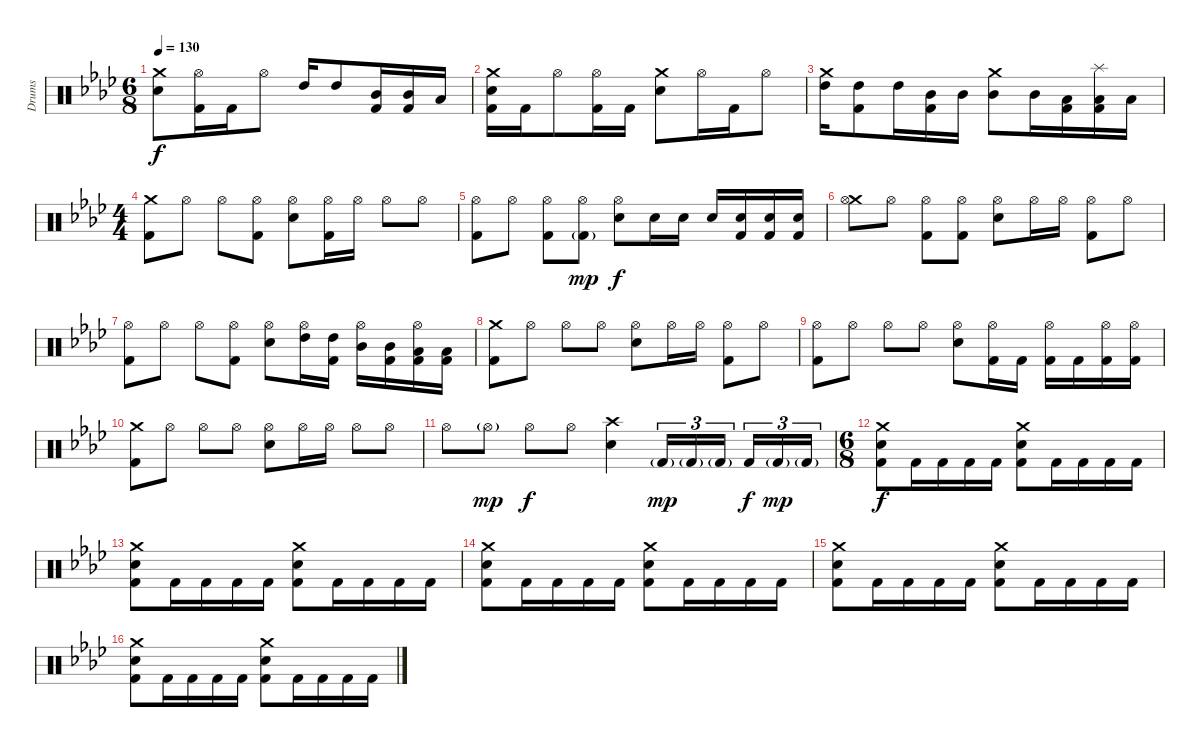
\track ("Drums" "Drums") {instrument percussion}
\staff {score}
\articulation defaults
\ts (6 8)
\tempo 130
\clef neutral
\ks ab
("Crash medium (hit)" "Electric Snare (hit)").8{dy f} ("Hi-Hat (open)" "Kick (hit) 2").16 "Kick (hit) 2".16 "Hi-Hat (open)".8 "High Tom (hit)".16 "High Tom (hit)".8 ("Mid Tom (hit)" "Kick (hit) 2").16 ("Mid Tom (hit)" "Kick (hit) 2").16 "Low Tom (hit)".16 |
("Crash medium (hit)" "Electric Snare (hit)" "Kick (hit) 2").16 "Kick (hit) 2".16 "Hi-Hat (open)".8 ("Hi-Hat (open)" "Kick (hit) 2").16 "Kick (hit) 2".16 ("Crash medium (hit)" "Electric Snare (hit)").8 "Hi-Hat (open)".16 "Kick (hit) 2".16 "Hi-Hat (open)".8 |
("High Tom (hit)" "Crash medium (hit)").16 ("High Tom (hit)" "Kick (hit) 2").8 "High Tom (hit)".16 ("Mid Tom (hit)" "Kick (hit) 2").16 "Mid Tom (hit)".16 ("Mid Tom (hit)" "Crash medium (hit)").8 "Mid Tom (hit)".16 ("Low Tom (hit)" "Kick (hit) 2").16 ("Low Tom (hit)" "Splash (hit)" "Kick (hit) 2").16 "Low Tom (hit)".16 |
\ts (4 4)
("Crash medium (hit)" "Kick (hit) 2").8{volume 16} "Hi-Hat (open)".8 "Hi-Hat (open)".8 ("Kick (hit) 2" "Hi-Hat (open)").8 ("Electric Snare (hit)" "Hi-Hat (open)").8 ("Kick (hit) 2" "Hi-Hat (open)").16 "Hi-Hat (open)".16 "Hi-Hat (open)".8 "Hi-Hat (open)".8 |
("Kick (hit) 2" "Hi-Hat (open)").8 "Hi-Hat (open)".8 ("Kick (hit) 2" "Hi-Hat (open)").8 ("Kick (hit) 2"{g} "Hi-Hat (open)").8{dy mp} ("Electric Snare (hit)" "Hi-Hat (open)").8{dy f} "Electric Snare (hit)".16 "Electric Snare (hit)".16 "Electric Snare (hit)".16 ("Kick (hit) 2" "Electric Snare (hit)").16 ("Kick (hit) 2" "Electric Snare (hit)").16 ("Kick (hit) 2" "Electric Snare (hit)").16 |
("Crash medium (hit)" "Hi-Hat (open)").8 "Hi-Hat (open)".8 ("Kick (hit) 2" "Hi-Hat (open)").8 ("Kick (hit) 2" "Hi-Hat (open)").8 ("Electric Snare (hit)" "Hi-Hat (open)").8 "Hi-Hat (open)".16 "Hi-Hat (open)".16 ("Kick (hit) 2" "Hi-Hat (open)").8 "Hi-Hat (open)".8 |
("Kick (hit) 2" "Hi-Hat (open)").8 "Hi-Hat (open)".8 "Hi-Hat (open)".8 ("Kick (hit) 2" "Hi-Hat (open)").8 ("Electric Snare (hit)" "Hi-Hat (open)").8 ("High Tom (hit)" "Hi-Hat (open)").16 ("Kick (hit) 2" "High Tom (hit)").16 ("Mid Tom (hit)" "Hi-Hat (open)").16 ("Kick (hit) 2" "Mid Tom (hit)").16 ("Kick (hit) 2" "Low Tom (hit)" "Hi-Hat (open)").16 ("Kick (hit) 2" "Low Tom (hit)").16 |
("Crash medium (hit)" "Kick (hit) 2").8 "Hi-Hat (open)".8 "Hi-Hat (open)".8 "Hi-Hat (open)".8 ("Electric Snare (hit)" "Hi-Hat (open)").8 "Hi-Hat (open)".16 "Hi-Hat (open)".16 ("Kick (hit) 2" "Hi-Hat (open)").8 "Hi-Hat (open)".8 |
("Kick (hit) 2" "Hi-Hat (open)").8 "Hi-Hat (open)".8 "Hi-Hat (open)".8 "Hi-Hat (open)".8 ("Electric Snare (hit)" "Hi-Hat (open)").8 ("Kick (hit) 2" "Hi-Hat (open)").16 "Kick (hit) 2".16 ("Kick (hit) 2" "Hi-Hat (open)").16 "Kick (hit) 2".16 ("Kick (hit) 2" "Hi-Hat (open)").16 ("Kick (hit) 2" "Hi-Hat (open)").16 |
("Crash medium (hit)" "Kick (hit) 2").8 "Hi-Hat (open)".8 "Hi-Hat (open)".8 "Hi-Hat (open)".8 ("Electric Snare (hit)" "Hi-Hat (open)").8 "Hi-Hat (open)".16 "Hi-Hat (open)".16 "Hi-Hat (open)".8 "Hi-Hat (open)".8 |
"Hi-Hat (open)".8 "Hi-Hat (open)"{g}.8{dy mp} "Hi-Hat (open)".8{dy f} "Hi-Hat (open)".8 ("Crash high (hit)" "Electric Snare (hit)").4 "Kick (hit) 2"{g}.16{tu (3 2) dy mp} "Kick (hit) 2"{g}.16{tu (3 2)} "Kick (hit) 2"{g}.16{tu (3 2)} "Kick (hit) 2".16{tu (3 2) dy f} "Kick (hit) 2"{g}.16{tu (3 2) dy mp} "Kick (hit) 2"{g}.16{tu (3 2)} |
\ts (6 8)
("Kick (hit) 2" "Electric Snare (hit)" "Crash medium (hit)").8{dy f} "Kick (hit) 2".16 "Kick (hit) 2".16 "Kick (hit) 2".16 "Kick (hit) 2".16 ("Kick (hit) 2" "Electric Snare (hit)" "Crash medium (hit)").8 "Kick (hit) 2".16 "Kick (hit) 2".16 "Kick (hit) 2".16 "Kick (hit) 2".16 |
("Kick (hit) 2" "Electric Snare (hit)" "Crash medium (hit)").8 "Kick (hit) 2".16 "Kick (hit) 2".16 "Kick (hit) 2".16 "Kick (hit) 2".16 ("Kick (hit) 2" "Electric Snare (hit)" "Crash medium (hit)").8 "Kick (hit) 2".16 "Kick (hit) 2".16 "Kick (hit) 2".16 "Kick (hit) 2".16 |
("Kick (hit) 2" "Electric Snare (hit)" "Crash medium (hit)").8 "Kick (hit) 2".16 "Kick (hit) 2".16 "Kick (hit) 2".16 "Kick (hit) 2".16 ("Kick (hit) 2" "Electric Snare (hit)" "Crash medium (hit)").8 "Kick (hit) 2".16 "Kick (hit) 2".16 "Kick (hit) 2".16 "Kick (hit) 2".16 |
("Kick (hit) 2" "Electric Snare (hit)" "Crash medium (hit)").8 "Kick (hit) 2".16 "Kick (hit) 2".16 "Kick (hit) 2".16 "Kick (hit) 2".16 ("Kick (hit) 2" "Electric Snare (hit)" "Crash medium (hit)").8 "Kick (hit) 2".16 "Kick (hit) 2".16 "Kick (hit) 2".16 "Kick (hit) 2".16 |
("Kick (hit) 2" "Electric Snare (hit)" "Crash medium (hit)").8 "Kick (hit) 2".16 "Kick (hit) 2".16 "Kick (hit) 2".16 "Kick (hit) 2".16 ("Kick (hit) 2" "Electric Snare (hit)" "Crash medium (hit)").8 "Kick (hit) 2".16 "Kick (hit) 2".16 "Kick (hit) 2".16 "Kick (hit) 2".16
